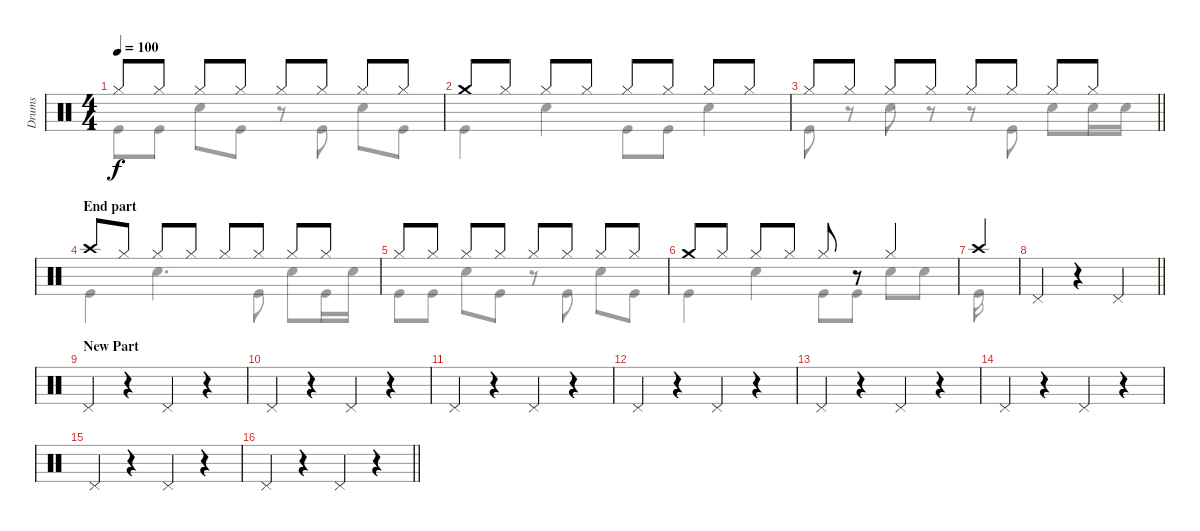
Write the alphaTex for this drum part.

\track ("Drums" "Drums") {instrument percussion}
\staff {score}
\articulation defaults
\voice
\ts (4 4)
\tempo 100
\clef neutral
\ks c "Hi-Hat (closed)".8{dy f} "Hi-Hat (closed)".8 "Hi-Hat (closed)".8 "Hi-Hat (closed)".8 "Hi-Hat (closed)".8 "Hi-Hat (closed)".8 "Hi-Hat (closed)".8 "Hi-Hat (closed)".8
|
"Crash medium (hit)".8 "Hi-Hat (closed)".8 "Hi-Hat (closed)".8 "Hi-Hat (closed)".8 "Hi-Hat (closed)".8 "Hi-Hat (closed)".8 "Hi-Hat (closed)".8 "Hi-Hat (closed)".8 |
\barLineRight lightlight "Hi-Hat (closed)".8 "Hi-Hat (closed)".8 "Hi-Hat (closed)".8 "Hi-Hat (closed)".8 "Hi-Hat (closed)".8 "Hi-Hat (closed)".8 "Hi-Hat (closed)".8 "Hi-Hat (closed)".8
|
\section ("" "End part")
"Crash high (hit)".8 "Hi-Hat (closed)".8 "Hi-Hat (closed)".8 "Hi-Hat (closed)".8 "Hi-Hat (closed)".8 "Hi-Hat (closed)".8 "Hi-Hat (closed)".8 "Hi-Hat (closed)".8 |
"Hi-Hat (closed)".8 "Hi-Hat (closed)".8 "Hi-Hat (closed)".8 "Hi-Hat (closed)".8 "Hi-Hat (closed)".8 "Hi-Hat (closed)".8 "Hi-Hat (closed)".8 "Hi-Hat (closed)".8 |
"Crash medium (hit)".8 "Hi-Hat (closed)".8 "Hi-Hat (closed)".8 "Hi-Hat (closed)".8 "Hi-Hat (closed)".8 r.8 "Hi-Hat (closed)".4 |
"Crash high (hit)".4 |
\barLineRight lightlight "Pedal Hi-Hat (hit)".4
r.4 "Pedal Hi-Hat (hit)".4 |
\section ("" "New Part")
"Pedal Hi-Hat (hit)".4 r.4 "Pedal Hi-Hat (hit)".4 r.4 |
"Pedal Hi-Hat (hit)".4 r.4 "Pedal Hi-Hat (hit)".4 r.4 |
"Pedal Hi-Hat (hit)".4 r.4 "Pedal Hi-Hat (hit)".4 r.4 |
"Pedal Hi-Hat (hit)".4 r.4 "Pedal Hi-Hat (hit)".4 r.4 |
"Pedal Hi-Hat (hit)".4 r.4 "Pedal Hi-Hat (hit)".4 r.4 |
"Pedal Hi-Hat (hit)".4 r.4 "Pedal Hi-Hat (hit)".4 r.4 |
"Pedal Hi-Hat (hit)".4 r.4 "Pedal Hi-Hat (hit)".4 r.4 |
\barLineRight lightlight "Pedal Hi-Hat (hit)".4
r.4 "Pedal Hi-Hat (hit)".4 r.4
\voice
\clef neutral
\ottava regular
\simile none
\ks c "Kick (hit)".8{dy f} "Kick (hit)".8 "Snare (hit) 2".8 "Kick (hit)".8
r.8 "Kick (hit)".8 "Snare (hit) 2".8 "Kick (hit)".8 |
"Kick (hit)".4 "Snare (hit) 2".4 "Kick (hit)".8 "Kick (hit)".8 "Snare (hit) 2".4 |
\barLineRight lightlight "Kick (hit)".8
r.8 "Snare (hit) 2".8 r.8 r.8 "Kick (hit)".8 "Snare (hit) 2".8 "Snare (hit) 2".16 "Snare (hit) 2".16 |
"Kick (hit)".4 "Snare (hit) 2".4{d} "Kick (hit)".8 "Snare (hit) 2".8 "Kick (hit)".16 "Snare (hit) 2".16 |
"Kick (hit)".8 "Kick (hit)".8 "Snare (hit) 2".8 "Kick (hit)".8 r.8 "Kick (hit)".8 "Snare (hit) 2".8 "Kick (hit)".8 |
"Kick (hit)".4 "Snare (hit) 2".4 "Kick (hit)".8 "Kick (hit)".8 "Snare (hit) 2".8 "Snare (hit) 2".8 |
"Kick (hit)".16 |
\barLineRight lightlight
|
|
|
|
|
|
|
|
\barLineRight lightlight
